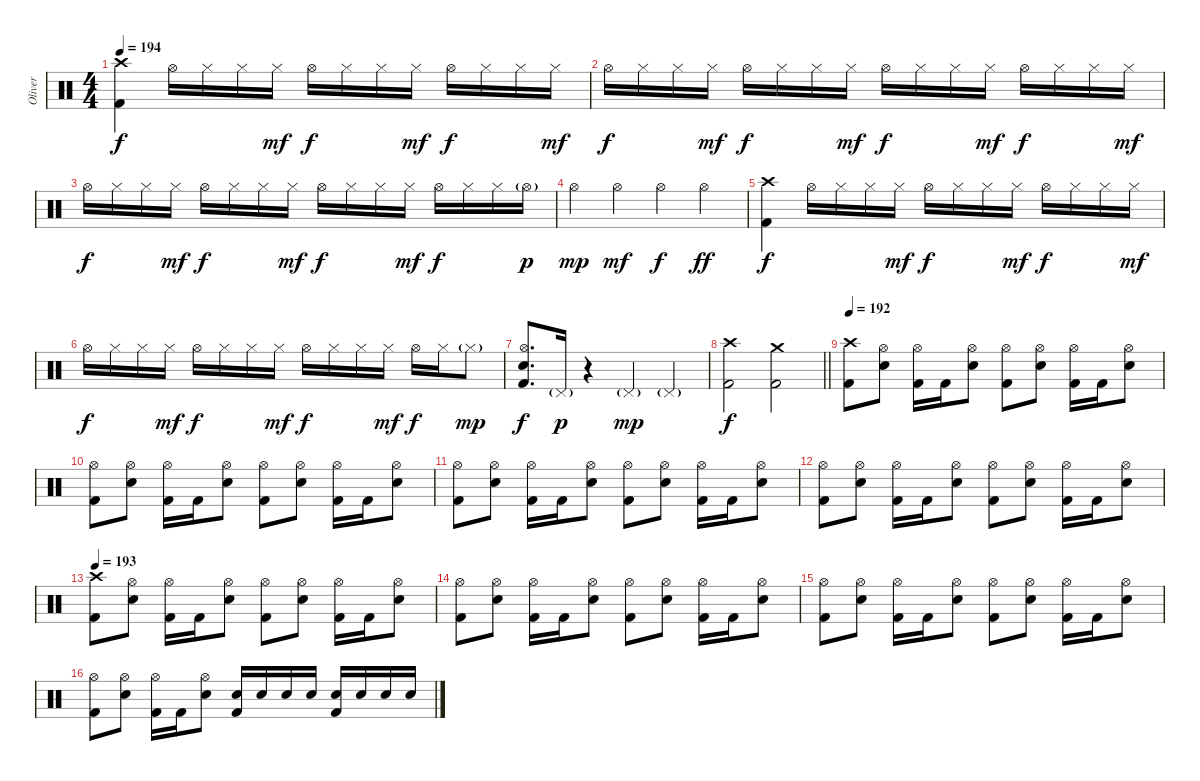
\track ("Oliver" "Oliver") {instrument percussion}
\staff {score}
\articulation defaults
\ts (4 4)
\tempo 194
\clef neutral
\ks c
("Crash high (hit)" "Kick (hit) 2").4{dy f} "Hi-Hat (open)".16 "Hi-Hat (closed)".16 "Hi-Hat (closed)".16 "Hi-Hat (closed)".16{dy mf} "Hi-Hat (open)".16{dy f} "Hi-Hat (closed)".16 "Hi-Hat (closed)".16 "Hi-Hat (closed)".16{dy mf} "Hi-Hat (open)".16{dy f} "Hi-Hat (closed)".16 "Hi-Hat (closed)".16 "Hi-Hat (closed)".16{dy mf} |
"Hi-Hat (open)".16{dy f} "Hi-Hat (closed)".16 "Hi-Hat (closed)".16 "Hi-Hat (closed)".16{dy mf} "Hi-Hat (open)".16{dy f} "Hi-Hat (closed)".16 "Hi-Hat (closed)".16 "Hi-Hat (closed)".16{dy mf} "Hi-Hat (open)".16{dy f} "Hi-Hat (closed)".16 "Hi-Hat (closed)".16 "Hi-Hat (closed)".16{dy mf} "Hi-Hat (open)".16{dy f} "Hi-Hat (closed)".16 "Hi-Hat (closed)".16 "Hi-Hat (closed)".16{dy mf} |
"Hi-Hat (open)".16{dy f} "Hi-Hat (closed)".16 "Hi-Hat (closed)".16 "Hi-Hat (closed)".16{dy mf} "Hi-Hat (open)".16{dy f} "Hi-Hat (closed)".16 "Hi-Hat (closed)".16 "Hi-Hat (closed)".16{dy mf} "Hi-Hat (open)".16{dy f} "Hi-Hat (closed)".16 "Hi-Hat (closed)".16 "Hi-Hat (closed)".16{dy mf} "Hi-Hat (open)".16{dy f} "Hi-Hat (closed)".16 "Hi-Hat (closed)".16 "Hi-Hat (open)"{g}.16{dy p} |
"Hi-Hat (open)".4{dy mp} "Hi-Hat (open)".4{dy mf} "Hi-Hat (open)".4{dy f} "Hi-Hat (open)".4{dy ff} |
("Crash high (hit)" "Kick (hit) 2").4{dy f} "Hi-Hat (open)".16 "Hi-Hat (closed)".16 "Hi-Hat (closed)".16 "Hi-Hat (closed)".16{dy mf} "Hi-Hat (open)".16{dy f} "Hi-Hat (closed)".16 "Hi-Hat (closed)".16 "Hi-Hat (closed)".16{dy mf} "Hi-Hat (open)".16{dy f} "Hi-Hat (closed)".16 "Hi-Hat (closed)".16 "Hi-Hat (closed)".16{dy mf} |
"Hi-Hat (open)".16{dy f} "Hi-Hat (closed)".16 "Hi-Hat (closed)".16 "Hi-Hat (closed)".16{dy mf} "Hi-Hat (open)".16{dy f} "Hi-Hat (closed)".16 "Hi-Hat (closed)".16 "Hi-Hat (closed)".16{dy mf} "Hi-Hat (open)".16{dy f} "Hi-Hat (closed)".16 "Hi-Hat (closed)".16 "Hi-Hat (closed)".16{dy mf} "Hi-Hat (open)".16{dy f} "Hi-Hat (closed)".16 "Hi-Hat (closed)"{g}.8{dy mp} |
("Hi-Hat (open)" "Electric Snare (hit)" "Kick (hit) 2").8{d dy f} "Pedal Hi-Hat (hit)"{g}.16{dy p} r.4 "Pedal Hi-Hat (hit)"{g}.4{dy mp} "Pedal Hi-Hat (hit)"{g}.4 |
\barLineRight lightlight
("Crash high (hit)" "Kick (hit) 2").2{dy f} ("Crash medium (hit)" "Kick (hit) 2").2 |
\section ("" "")
\tempo 197
\tempo 192
("Crash high (hit)" "Kick (hit) 2").8 ("Hi-Hat (open)" "Electric Snare (hit)").8 ("Hi-Hat (open)" "Kick (hit) 2").16 "Kick (hit) 2".16 ("Hi-Hat (open)" "Electric Snare (hit)").8 ("Hi-Hat (open)" "Kick (hit) 2").8 ("Hi-Hat (open)" "Electric Snare (hit)").8 ("Hi-Hat (open)" "Kick (hit) 2").16 "Kick (hit) 2".16 ("Hi-Hat (open)" "Electric Snare (hit)").8 |
("Hi-Hat (open)" "Kick (hit) 2").8 ("Hi-Hat (open)" "Electric Snare (hit)").8 ("Hi-Hat (open)" "Kick (hit) 2").16 "Kick (hit) 2".16 ("Hi-Hat (open)" "Electric Snare (hit)").8 ("Hi-Hat (open)" "Kick (hit) 2").8 ("Hi-Hat (open)" "Electric Snare (hit)").8 ("Hi-Hat (open)" "Kick (hit) 2").16 "Kick (hit) 2".16 ("Hi-Hat (open)" "Electric Snare (hit)").8 |
("Hi-Hat (open)" "Kick (hit) 2").8 ("Hi-Hat (open)" "Electric Snare (hit)").8 ("Hi-Hat (open)" "Kick (hit) 2").16 "Kick (hit) 2".16 ("Hi-Hat (open)" "Electric Snare (hit)").8 ("Hi-Hat (open)" "Kick (hit) 2").8 ("Hi-Hat (open)" "Electric Snare (hit)").8 ("Hi-Hat (open)" "Kick (hit) 2").16 "Kick (hit) 2".16 ("Hi-Hat (open)" "Electric Snare (hit)").8 |
("Hi-Hat (open)" "Kick (hit) 2").8 ("Hi-Hat (open)" "Electric Snare (hit)").8 ("Hi-Hat (open)" "Kick (hit) 2").16 "Kick (hit) 2".16 ("Hi-Hat (open)" "Electric Snare (hit)").8 ("Hi-Hat (open)" "Kick (hit) 2").8 ("Hi-Hat (open)" "Electric Snare (hit)").8 ("Hi-Hat (open)" "Kick (hit) 2").16 "Kick (hit) 2".16 ("Hi-Hat (open)" "Electric Snare (hit)").8 |
\tempo 193
("Crash high (hit)" "Kick (hit) 2").8 ("Hi-Hat (open)" "Electric Snare (hit)").8 ("Hi-Hat (open)" "Kick (hit) 2").16 "Kick (hit) 2".16 ("Hi-Hat (open)" "Electric Snare (hit)").8 ("Hi-Hat (open)" "Kick (hit) 2").8 ("Hi-Hat (open)" "Electric Snare (hit)").8 ("Hi-Hat (open)" "Kick (hit) 2").16 "Kick (hit) 2".16 ("Hi-Hat (open)" "Electric Snare (hit)").8 |
("Hi-Hat (open)" "Kick (hit) 2").8 ("Hi-Hat (open)" "Electric Snare (hit)").8 ("Hi-Hat (open)" "Kick (hit) 2").16 "Kick (hit) 2".16 ("Hi-Hat (open)" "Electric Snare (hit)").8 ("Hi-Hat (open)" "Kick (hit) 2").8 ("Hi-Hat (open)" "Electric Snare (hit)").8 ("Hi-Hat (open)" "Kick (hit) 2").16 "Kick (hit) 2".16 ("Hi-Hat (open)" "Electric Snare (hit)").8 |
("Hi-Hat (open)" "Kick (hit) 2").8 ("Hi-Hat (open)" "Electric Snare (hit)").8 ("Hi-Hat (open)" "Kick (hit) 2").16 "Kick (hit) 2".16 ("Hi-Hat (open)" "Electric Snare (hit)").8 ("Hi-Hat (open)" "Kick (hit) 2").8 ("Hi-Hat (open)" "Electric Snare (hit)").8 ("Hi-Hat (open)" "Kick (hit) 2").16 "Kick (hit) 2".16 ("Hi-Hat (open)" "Electric Snare (hit)").8 |
("Hi-Hat (open)" "Kick (hit) 2").8 ("Hi-Hat (open)" "Electric Snare (hit)").8 ("Hi-Hat (open)" "Kick (hit) 2").16 "Kick (hit) 2".16 ("Hi-Hat (open)" "Electric Snare (hit)").8 ("Electric Snare (hit)" "Kick (hit) 2").16 "Electric Snare (hit)".16 "Electric Snare (hit)".16 "Electric Snare (hit)".16 ("Electric Snare (hit)" "Kick (hit) 2").16 "Electric Snare (hit)".16 "Electric Snare (hit)".16 "Electric Snare (hit)".16
